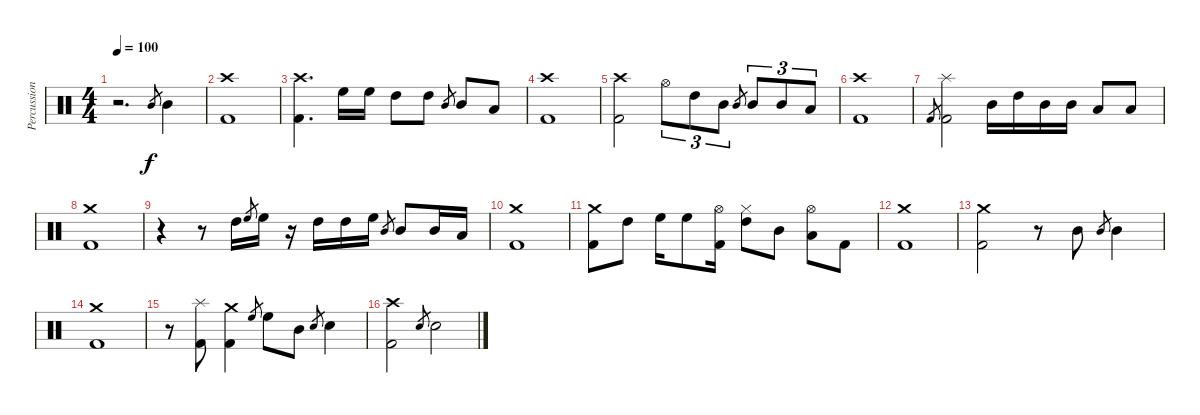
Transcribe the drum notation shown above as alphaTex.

\track ("Percussions" "Percussion") {instrument percussion}
\staff {score}
\articulation defaults
\ts (4 4)
\tempo 100
\clef neutral
\ks c
r.2{d dy f} "Mid Tom (hit)".8{gr} "Mid Tom (hit)".4 |
("Crash high (hit)" "Kick (hit) 2").1 |
("Crash high (hit)" "Kick (hit) 2").4{d} "High Floor Tom (hit)".16 "High Floor Tom (hit)".16 "High Tom (hit)".8 "High Tom (hit)".8 "Mid Tom (hit)".8{gr} "Mid Tom (hit)".8 "Low Tom (hit)".8 |
("Crash high (hit)" "Kick (hit) 2").1 |
("Crash high (hit)" "Kick (hit) 2").2 "Hi-Hat (open)".8{tu (3 2)} "High Tom (hit)".8{tu (3 2)} "Mid Tom (hit)".8{tu (3 2)} "Mid Tom (hit)".8{gr} "Mid Tom (hit)".8{tu (3 2)} "Mid Tom (hit)".8{tu (3 2)} "Low Tom (hit)".8{tu (3 2)} |
("Crash high (hit)" "Kick (hit) 2").1 |
"Kick (hit) 2".8{gr} ("Splash (hit)" "Kick (hit) 2").2 "Mid Tom (hit)".16 "High Tom (hit)".16 "Mid Tom (hit)".16 "Mid Tom (hit)".16 "Low Tom (hit)".8 "Low Tom (hit)".8 |
("Crash medium (hit)" "Kick (hit) 2").1 |
r.4 r.8 "High Tom (hit)".16 "High Floor Tom (hit)".8{gr} "High Floor Tom (hit)".16 r.16 "High Tom (hit)".16 "High Tom (hit)".16 "High Floor Tom (hit)".16 "Mid Tom (hit)".8{gr} "Mid Tom (hit)".8 "Mid Tom (hit)".16 "Low Tom (hit)".16 |
("Crash medium (hit)" "Kick (hit) 2").1 |
("Crash medium (hit)" "Kick (hit) 2").8 "High Tom (hit)".8 "High Floor Tom (hit)".16 "High Floor Tom (hit)".8 ("Hi-Hat (open)" "Kick (hit) 2").16 ("High Tom (hit)" "Hi-Hat (closed)").8 "Mid Tom (hit)".8 ("Hi-Hat (open)" "Low Tom (hit)").8 "Kick (hit) 2".8 |
("Crash medium (hit)" "Kick (hit) 2").1 |
("Crash medium (hit)" "Kick (hit) 2").2 r.8 "Mid Tom (hit)".8 "Mid Tom (hit)".8{gr} "Mid Tom (hit)".4 |
("Crash medium (hit)" "Kick (hit) 2").1 |
r.8 ("Splash (hit)" "Kick (hit) 2").8 ("Crash medium (hit)" "Kick (hit) 2").4 "High Floor Tom (hit)".8{gr} "High Floor Tom (hit)".8 "Mid Tom (hit)".8 "Electric Snare (hit)".8{gr} "Electric Snare (hit)".4 |
("Crash high (hit)" "Kick (hit) 2").2 "Electric Snare (hit)".8{gr} "Electric Snare (hit)".2
